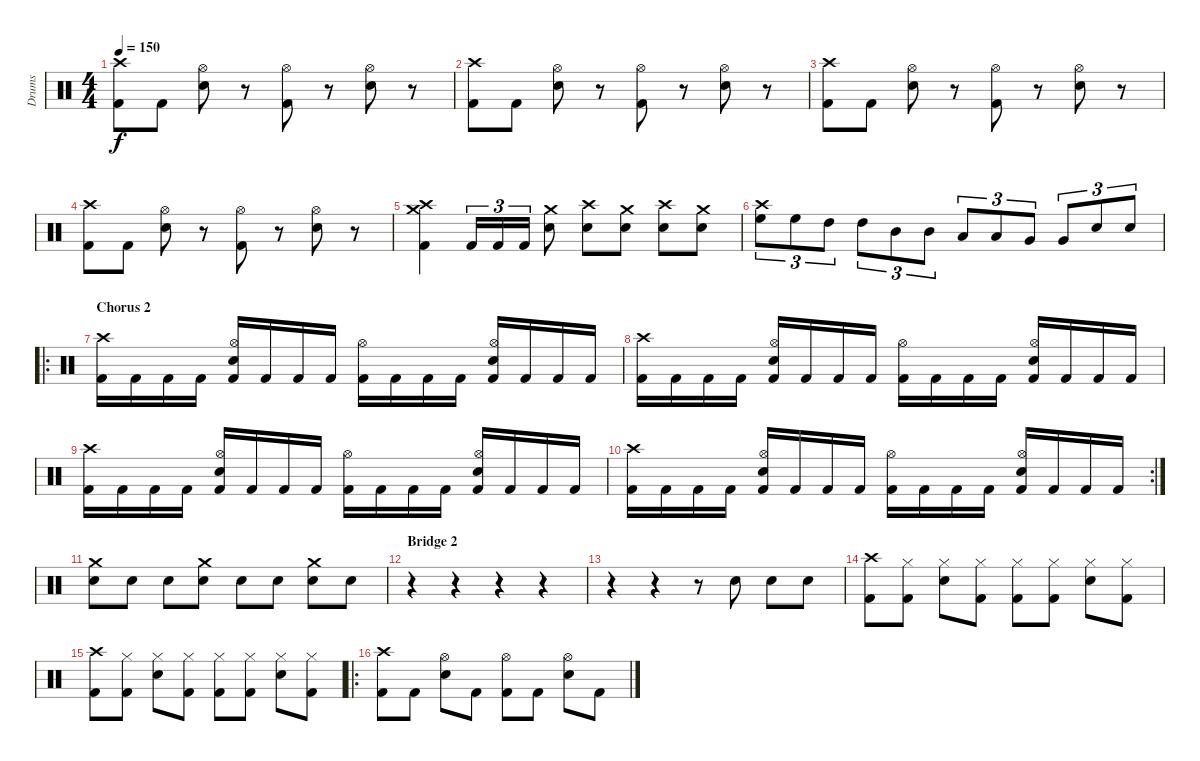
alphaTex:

\track ("Drums" "Drums") {instrument percussion}
\staff {score}
\articulation defaults
\ts (4 4)
\tempo 150
\clef neutral
\ks c
("Crash high (hit)" "Kick (hit) 2").8{dy f} "Kick (hit) 2".8 ("Hi-Hat (open)" "Snare (hit) 2").8 r.8 ("Hi-Hat (open)" "Kick (hit) 2").8 r.8 ("Hi-Hat (open)" "Snare (hit) 2").8 r.8 |
("Crash high (hit)" "Kick (hit) 2").8 "Kick (hit) 2".8 ("Hi-Hat (open)" "Snare (hit) 2").8 r.8 ("Hi-Hat (open)" "Kick (hit) 2").8 r.8 ("Hi-Hat (open)" "Snare (hit) 2").8 r.8 |
("Crash high (hit)" "Kick (hit) 2").8 "Kick (hit) 2".8 ("Hi-Hat (open)" "Snare (hit) 2").8 r.8 ("Hi-Hat (open)" "Kick (hit) 2").8 r.8 ("Hi-Hat (open)" "Snare (hit) 2").8 r.8 |
("Crash high (hit)" "Kick (hit) 2").8 "Kick (hit) 2".8 ("Hi-Hat (open)" "Snare (hit) 2").8 r.8 ("Hi-Hat (open)" "Kick (hit) 2").8 r.8 ("Hi-Hat (open)" "Snare (hit) 2").8 r.8 |
("Crash medium (hit)" "Crash high (hit)" "Kick (hit) 2").4 "Kick (hit) 2".16{tu (3 2)} "Kick (hit) 2".16{tu (3 2)} "Kick (hit) 2".16{tu (3 2)} ("Crash medium (hit)" "Snare (hit) 2").8 ("Crash high (hit)" "Snare (hit) 2").8 ("Crash medium (hit)" "Snare (hit) 2").8 ("Crash high (hit)" "Snare (hit) 2").8 ("Crash medium (hit)" "Snare (hit) 2").8 |
("Crash high (hit)" "High Floor Tom (hit)").8{tu (3 2)} "High Floor Tom (hit)".8{tu (3 2)} "High Tom (hit)".8{tu (3 2)} "High Tom (hit)".8{tu (3 2)} "Mid Tom (hit)".8{tu (3 2)} "Mid Tom (hit)".8{tu (3 2)} "Low Tom (hit)".8{tu (3 2)} "Low Tom (hit)".8{tu (3 2)} "Very Low Tom (hit)".8{tu (3 2)} "Very Low Tom (hit)".8{tu (3 2)} "Snare (hit) 2".8{tu (3 2)} "Snare (hit) 2".8{tu (3 2)} |
\ro
\section ("" "Chorus 2")
("Crash high (hit)" "Kick (hit) 2").16 "Kick (hit) 2".16 "Kick (hit) 2".16 "Kick (hit) 2".16 ("Hi-Hat (open)" "Snare (hit) 2" "Kick (hit) 2").16 "Kick (hit) 2".16 "Kick (hit) 2".16 "Kick (hit) 2".16 ("Hi-Hat (open)" "Kick (hit) 2").16 "Kick (hit) 2".16 "Kick (hit) 2".16 "Kick (hit) 2".16 ("Hi-Hat (open)" "Snare (hit) 2" "Kick (hit) 2").16 "Kick (hit) 2".16 "Kick (hit) 2".16 "Kick (hit) 2".16 |
("Crash high (hit)" "Kick (hit) 2").16 "Kick (hit) 2".16 "Kick (hit) 2".16 "Kick (hit) 2".16 ("Hi-Hat (open)" "Snare (hit) 2" "Kick (hit) 2").16 "Kick (hit) 2".16 "Kick (hit) 2".16 "Kick (hit) 2".16 ("Hi-Hat (open)" "Kick (hit) 2").16 "Kick (hit) 2".16 "Kick (hit) 2".16 "Kick (hit) 2".16 ("Hi-Hat (open)" "Snare (hit) 2" "Kick (hit) 2").16 "Kick (hit) 2".16 "Kick (hit) 2".16 "Kick (hit) 2".16 |
("Crash high (hit)" "Kick (hit) 2").16 "Kick (hit) 2".16 "Kick (hit) 2".16 "Kick (hit) 2".16 ("Hi-Hat (open)" "Snare (hit) 2" "Kick (hit) 2").16 "Kick (hit) 2".16 "Kick (hit) 2".16 "Kick (hit) 2".16 ("Hi-Hat (open)" "Kick (hit) 2").16 "Kick (hit) 2".16 "Kick (hit) 2".16 "Kick (hit) 2".16 ("Hi-Hat (open)" "Snare (hit) 2" "Kick (hit) 2").16 "Kick (hit) 2".16 "Kick (hit) 2".16 "Kick (hit) 2".16 |
\rc 2
("Crash high (hit)" "Kick (hit) 2").16 "Kick (hit) 2".16 "Kick (hit) 2".16 "Kick (hit) 2".16 ("Hi-Hat (open)" "Snare (hit) 2" "Kick (hit) 2").16 "Kick (hit) 2".16 "Kick (hit) 2".16 "Kick (hit) 2".16 ("Hi-Hat (open)" "Kick (hit) 2").16 "Kick (hit) 2".16 "Kick (hit) 2".16 "Kick (hit) 2".16 ("Hi-Hat (open)" "Snare (hit) 2" "Kick (hit) 2").16 "Kick (hit) 2".16 "Kick (hit) 2".16 "Kick (hit) 2".16 |
("Crash medium (hit)" "Snare (hit) 2").8 "Snare (hit) 2".8 "Snare (hit) 2".8 ("Crash medium (hit)" "Snare (hit) 2").8 "Snare (hit) 2".8 "Snare (hit) 2".8 ("Crash medium (hit)" "Snare (hit) 2").8 "Snare (hit) 2".8 |
\section ("" "Bridge 2")
r.4 r.4 r.4 r.4 |
r.4 r.4 r.8 "Snare (hit) 2".8 "Snare (hit) 2".8 "Snare (hit) 2".8 |
("Crash high (hit)" "Kick (hit) 2").8 ("Hi-Hat (closed)" "Kick (hit) 2").8 ("Hi-Hat (closed)" "Snare (hit) 2").8 ("Hi-Hat (closed)" "Kick (hit) 2").8 ("Hi-Hat (closed)" "Kick (hit) 2").8 ("Hi-Hat (closed)" "Kick (hit) 2").8 ("Hi-Hat (closed)" "Snare (hit) 2").8 ("Hi-Hat (closed)" "Kick (hit) 2").8 |
("Crash high (hit)" "Kick (hit) 2").8 ("Hi-Hat (closed)" "Kick (hit) 2").8 ("Hi-Hat (closed)" "Snare (hit) 2").8 ("Hi-Hat (closed)" "Kick (hit) 2").8 ("Hi-Hat (closed)" "Kick (hit) 2").8 ("Hi-Hat (closed)" "Kick (hit) 2").8 ("Hi-Hat (closed)" "Snare (hit) 2").8 ("Hi-Hat (closed)" "Kick (hit) 2").8 |
\ro
("Crash high (hit)" "Kick (hit) 2").8 "Kick (hit) 2".8 ("Hi-Hat (open)" "Snare (hit) 2").8 "Kick (hit) 2".8 ("Hi-Hat (open)" "Kick (hit) 2").8 "Kick (hit) 2".8 ("Hi-Hat (open)" "Snare (hit) 2").8 "Kick (hit) 2".8
